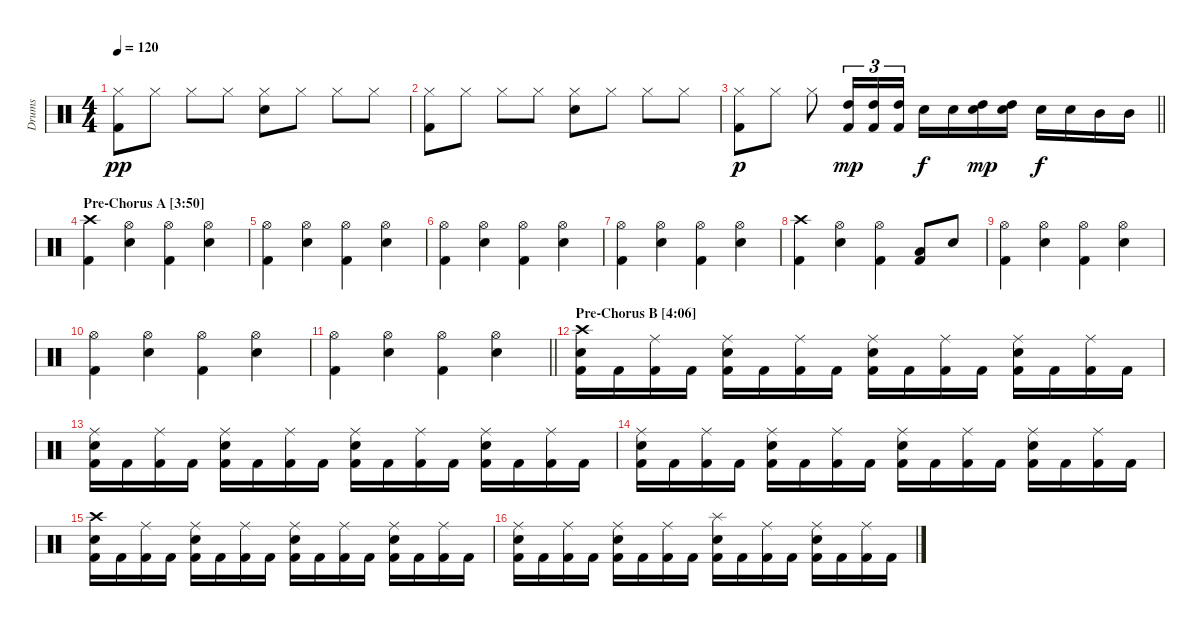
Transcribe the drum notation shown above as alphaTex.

\track ("Drums" "Drums") {instrument percussion}
\staff {score}
\articulation defaults
\ts (4 4)
\tempo 120
\clef neutral
\ks c
("Hi-Hat (closed)" "Kick (hit) 2").8{dy pp} "Hi-Hat (closed)".8 "Hi-Hat (closed)".8 "Hi-Hat (closed)".8 ("Hi-Hat (closed)" "Snare (hit) 2").8 "Hi-Hat (closed)".8 "Hi-Hat (closed)".8 "Hi-Hat (closed)".8 |
("Hi-Hat (closed)" "Kick (hit) 2").8 "Hi-Hat (closed)".8 "Hi-Hat (closed)".8 "Hi-Hat (closed)".8 ("Hi-Hat (closed)" "Snare (hit) 2").8 "Hi-Hat (closed)".8 "Hi-Hat (closed)".8 "Hi-Hat (closed)".8 |
\barLineRight lightlight
("Hi-Hat (closed)" "Kick (hit) 2").8{dy p} "Hi-Hat (closed)".8 "Hi-Hat (closed)".8 ("High Tom (hit)" "Kick (hit) 2").16{tu (3 2) dy mp} ("High Tom (hit)" "Kick (hit) 2").16{tu (3 2)} ("High Tom (hit)" "Kick (hit) 2").16{tu (3 2)} "Snare (hit) 2".16{dy f} "Snare (hit) 2".16 ("High Tom (hit)" "Snare (hit) 2").16{dy mp} ("High Tom (hit)" "Snare (hit) 2").16 "Snare (hit) 2".16{dy f} "Snare (hit) 2".16 "Mid Tom (hit)".16 "Mid Tom (hit)".16 |
\section ("" "Pre-Chorus A [3:50]")
("Crash high (hit)" "Kick (hit) 2").4 ("Hi-Hat (open)" "Snare (hit) 2").4 ("Hi-Hat (open)" "Kick (hit) 2").4 ("Hi-Hat (open)" "Snare (hit) 2").4 |
("Hi-Hat (open)" "Kick (hit) 2").4 ("Hi-Hat (open)" "Snare (hit) 2").4 ("Hi-Hat (open)" "Kick (hit) 2").4 ("Hi-Hat (open)" "Snare (hit) 2").4 |
("Hi-Hat (open)" "Kick (hit) 2").4 ("Hi-Hat (open)" "Snare (hit) 2").4 ("Hi-Hat (open)" "Kick (hit) 2").4 ("Hi-Hat (open)" "Snare (hit) 2").4 |
("Hi-Hat (open)" "Kick (hit) 2").4 ("Hi-Hat (open)" "Snare (hit) 2").4 ("Hi-Hat (open)" "Kick (hit) 2").4 ("Hi-Hat (open)" "Snare (hit) 2").4 |
("Crash high (hit)" "Kick (hit) 2").4 ("Hi-Hat (open)" "Snare (hit) 2").4 ("Hi-Hat (open)" "Kick (hit) 2").4 ("Low Tom (hit)" "Kick (hit) 2").8 "Snare (hit) 2".8 |
("Hi-Hat (open)" "Kick (hit) 2").4 ("Hi-Hat (open)" "Snare (hit) 2").4 ("Hi-Hat (open)" "Kick (hit) 2").4 ("Hi-Hat (open)" "Snare (hit) 2").4 |
("Hi-Hat (open)" "Kick (hit) 2").4 ("Hi-Hat (open)" "Snare (hit) 2").4 ("Hi-Hat (open)" "Kick (hit) 2").4 ("Hi-Hat (open)" "Snare (hit) 2").4 |
\barLineRight lightlight
("Hi-Hat (open)" "Kick (hit) 2").4 ("Hi-Hat (open)" "Snare (hit) 2").4 ("Hi-Hat (open)" "Kick (hit) 2").4 ("Hi-Hat (open)" "Snare (hit) 2").4 |
\section ("" "Pre-Chorus B [4:06]")
("Crash high (hit)" "Snare (hit) 2" "Kick (hit) 2").16 "Kick (hit) 2".16 ("Ride (middle)" "Kick (hit) 2").16 "Kick (hit) 2".16 ("Ride (middle)" "Snare (hit) 2" "Kick (hit) 2").16 "Kick (hit) 2".16 ("Ride (middle)" "Kick (hit) 2").16 "Kick (hit) 2".16 ("Ride (middle)" "Snare (hit) 2" "Kick (hit) 2").16 "Kick (hit) 2".16 ("Ride (middle)" "Kick (hit) 2").16 "Kick (hit) 2".16 ("Ride (middle)" "Snare (hit) 2" "Kick (hit) 2").16 "Kick (hit) 2".16 ("Ride (middle)" "Kick (hit) 2").16 "Kick (hit) 2".16 |
("Ride (middle)" "Snare (hit) 2" "Kick (hit) 2").16 "Kick (hit) 2".16 ("Ride (middle)" "Kick (hit) 2").16 "Kick (hit) 2".16 ("Ride (middle)" "Snare (hit) 2" "Kick (hit) 2").16 "Kick (hit) 2".16 ("Ride (middle)" "Kick (hit) 2").16 "Kick (hit) 2".16 ("Ride (middle)" "Snare (hit) 2" "Kick (hit) 2").16 "Kick (hit) 2".16 ("Ride (middle)" "Kick (hit) 2").16 "Kick (hit) 2".16 ("Ride (middle)" "Snare (hit) 2" "Kick (hit) 2").16 "Kick (hit) 2".16 ("Ride (middle)" "Kick (hit) 2").16 "Kick (hit) 2".16 |
("Ride (middle)" "Snare (hit) 2" "Kick (hit) 2").16 "Kick (hit) 2".16 ("Ride (middle)" "Kick (hit) 2").16 "Kick (hit) 2".16 ("Ride (middle)" "Snare (hit) 2" "Kick (hit) 2").16 "Kick (hit) 2".16 ("Ride (middle)" "Kick (hit) 2").16 "Kick (hit) 2".16 ("Ride (middle)" "Snare (hit) 2" "Kick (hit) 2").16 "Kick (hit) 2".16 ("Ride (middle)" "Kick (hit) 2").16 "Kick (hit) 2".16 ("Ride (middle)" "Snare (hit) 2" "Kick (hit) 2").16 "Kick (hit) 2".16 ("Ride (middle)" "Kick (hit) 2").16 "Kick (hit) 2".16 |
("Crash high (hit)" "Snare (hit) 2" "Kick (hit) 2").16 "Kick (hit) 2".16 ("Ride (middle)" "Kick (hit) 2").16 "Kick (hit) 2".16 ("Ride (middle)" "Snare (hit) 2" "Kick (hit) 2").16 "Kick (hit) 2".16 ("Ride (middle)" "Kick (hit) 2").16 "Kick (hit) 2".16 ("Ride (middle)" "Snare (hit) 2" "Kick (hit) 2").16 "Kick (hit) 2".16 ("Ride (middle)" "Kick (hit) 2").16 "Kick (hit) 2".16 ("Ride (middle)" "Snare (hit) 2" "Kick (hit) 2").16 "Kick (hit) 2".16 ("Ride (middle)" "Kick (hit) 2").16 "Kick (hit) 2".16 |
("Ride (middle)" "Snare (hit) 2" "Kick (hit) 2").16 "Kick (hit) 2".16 ("Ride (middle)" "Kick (hit) 2").16 "Kick (hit) 2".16 ("Ride (middle)" "Snare (hit) 2" "Kick (hit) 2").16 "Kick (hit) 2".16 ("Ride (middle)" "Kick (hit) 2").16 "Kick (hit) 2".16 ("Splash (hit)" "Snare (hit) 2" "Kick (hit) 2").16 "Kick (hit) 2".16 ("Ride (middle)" "Kick (hit) 2").16 "Kick (hit) 2".16 ("Ride (middle)" "Snare (hit) 2" "Kick (hit) 2").16 "Kick (hit) 2".16 ("Ride (middle)" "Kick (hit) 2").16 "Kick (hit) 2".16
